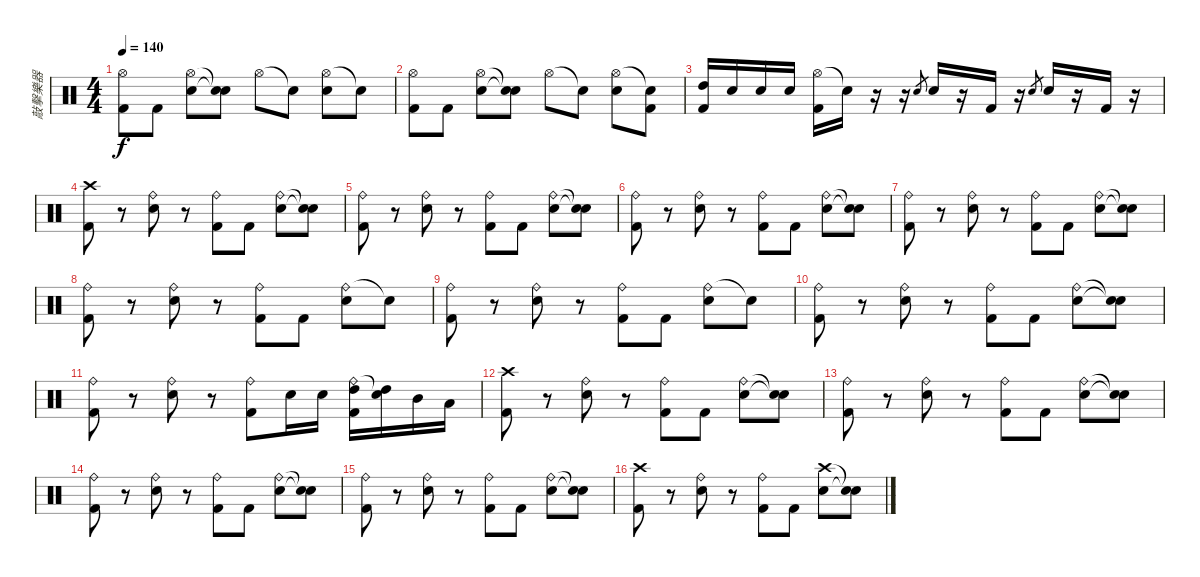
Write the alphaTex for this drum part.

\track ("敲擊樂器" "敲擊樂器") {instrument percussion}
\staff {score}
\articulation defaults
\ts (4 4)
\tempo 140
\clef neutral
\ks c
("Hi-Hat (open)" "Kick (hit) 2").8{dy f} "Kick (hit) 2".8 ("Hi-Hat (open)" "Snare (hit) 2").8 ("Snare (hit)"{t} "Snare (hit)"{t}).8 "Hi-Hat (open)".8 "Snare (hit)"{t}.8 ("Hi-Hat (open)" "Snare (hit) 2").8 "Snare (hit)"{t}.8 |
("Hi-Hat (open)" "Kick (hit) 2").8 "Kick (hit) 2".8 ("Hi-Hat (open)" "Snare (hit) 2").8 ("Snare (hit)"{t} "Snare (hit)"{t}).8 "Hi-Hat (open)".8 "Snare (hit)"{t}.8 ("Hi-Hat (open)" "Snare (hit) 2").8 ("Snare (hit)"{t} "Kick (hit) 2").8 |
("High Tom (hit)" "Kick (hit) 2").16 "Snare (hit) 2".16 "Snare (hit) 2".16 "Snare (hit) 2".16 ("Hi-Hat (open)" "Kick (hit) 2").16 "Snare (hit)"{t}.16 r.16 r.16 "Snare (hit) 2".8{gr} "Snare (hit) 2".16 r.16 "Kick (hit) 2".16 r.16 "Snare (hit) 2".8{gr} "Snare (hit) 2".16 r.16 "Kick (hit) 2".16 r.16 |
("Crash high (hit)" "Kick (hit) 2").8 r.8 ("Ride (bell)" "Snare (hit) 2").8 r.8 ("Ride (bell)" "Kick (hit) 2").8 "Kick (hit) 2".8 ("Ride (bell)" "Snare (hit) 2").8 ("Snare (hit)"{t} "Snare (hit)"{t}).8 |
("Ride (bell)" "Kick (hit) 2").8 r.8 ("Ride (bell)" "Snare (hit) 2").8 r.8 ("Ride (bell)" "Kick (hit) 2").8 "Kick (hit) 2".8 ("Ride (bell)" "Snare (hit) 2").8 ("Snare (hit)"{t} "Snare (hit)"{t}).8 |
("Ride (bell)" "Kick (hit) 2").8 r.8 ("Ride (bell)" "Snare (hit) 2").8 r.8 ("Ride (bell)" "Kick (hit) 2").8 "Kick (hit) 2".8 ("Ride (bell)" "Snare (hit) 2").8 ("Snare (hit)"{t} "Snare (hit)"{t}).8 |
("Ride (bell)" "Kick (hit) 2").8 r.8 ("Ride (bell)" "Snare (hit) 2").8 r.8 ("Ride (bell)" "Kick (hit) 2").8 "Kick (hit) 2".8 ("Ride (bell)" "Snare (hit) 2").8 ("Snare (hit)"{t} "Snare (hit)"{t}).8 |
("Ride (bell)" "Kick (hit) 2").8 r.8 ("Ride (bell)" "Snare (hit) 2").8 r.8 ("Ride (bell)" "Kick (hit) 2").8 "Kick (hit) 2".8 ("Ride (bell)" "Snare (hit) 2").8 "Snare (hit)"{t}.8 |
("Ride (bell)" "Kick (hit) 2").8 r.8 ("Ride (bell)" "Snare (hit) 2").8 r.8 ("Ride (bell)" "Kick (hit) 2").8 "Kick (hit) 2".8 ("Ride (bell)" "Snare (hit) 2").8 "Snare (hit)"{t}.8 |
("Ride (bell)" "Kick (hit) 2").8 r.8 ("Ride (bell)" "Snare (hit) 2").8 r.8 ("Ride (bell)" "Kick (hit) 2").8 "Kick (hit) 2".8 ("Ride (bell)" "Snare (hit) 2").8 ("Snare (hit)"{t} "Snare (hit)"{t}).8 |
("Ride (bell)" "Kick (hit) 2").8 r.8 ("Ride (bell)" "Snare (hit) 2").8 r.8 ("Ride (bell)" "Kick (hit) 2").8 "Snare (hit) 2".16 "Snare (hit) 2".16 ("Ride (bell)" "High Tom (hit)" "Kick (hit) 2").16 ("Snare (hit)"{t} "High Tom (hit)").16 "Mid Tom (hit)".16 "Low Tom (hit)".16 |
("Crash high (hit)" "Kick (hit) 2").8 r.8 ("Ride (bell)" "Snare (hit) 2").8 r.8 ("Ride (bell)" "Kick (hit) 2").8 "Kick (hit) 2".8 ("Ride (bell)" "Snare (hit) 2").8 ("Snare (hit)"{t} "Snare (hit)"{t}).8 |
("Ride (bell)" "Kick (hit) 2").8 r.8 ("Ride (bell)" "Snare (hit) 2").8 r.8 ("Ride (bell)" "Kick (hit) 2").8 "Kick (hit) 2".8 ("Ride (bell)" "Snare (hit) 2").8 ("Snare (hit)"{t} "Snare (hit)"{t}).8 |
("Ride (bell)" "Kick (hit) 2").8 r.8 ("Ride (bell)" "Snare (hit) 2").8 r.8 ("Ride (bell)" "Kick (hit) 2").8 "Kick (hit) 2".8 ("Ride (bell)" "Snare (hit) 2").8 ("Snare (hit)"{t} "Snare (hit)"{t}).8 |
("Ride (bell)" "Kick (hit) 2").8 r.8 ("Ride (bell)" "Snare (hit) 2").8 r.8 ("Ride (bell)" "Kick (hit) 2").8 "Kick (hit) 2".8 ("Ride (bell)" "Snare (hit) 2").8 ("Snare (hit)"{t} "Snare (hit)"{t}).8 |
("Crash high (hit)" "Kick (hit) 2").8 r.8 ("Ride (bell)" "Snare (hit) 2").8 r.8 ("Ride (bell)" "Kick (hit) 2").8 "Kick (hit) 2".8 ("Crash high (hit)" "Snare (hit) 2").8 ("Snare (hit)"{t} "Snare (hit)"{t}).8
